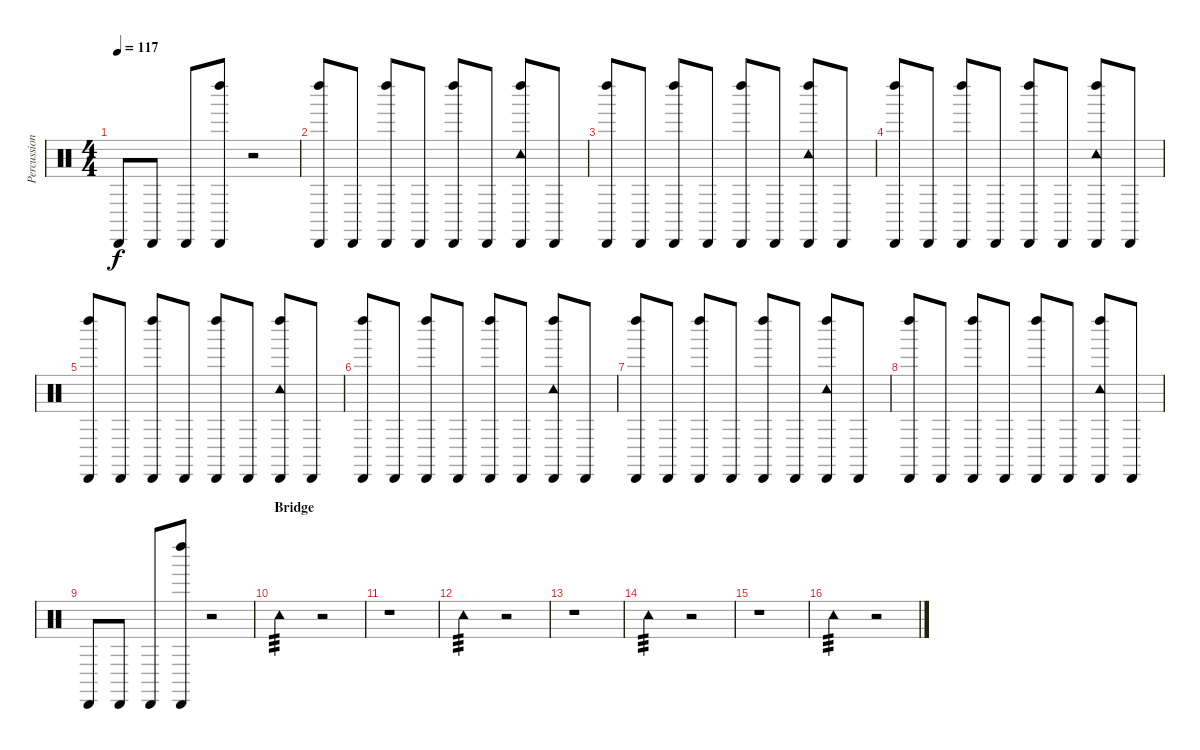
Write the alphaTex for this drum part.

\track ("Percussion" "Percussion") {instrument percussion}
\staff {score}
\articulation defaults
\ts (4 4)
\tempo 117
\clef neutral
\ks c "Cabasa (hit)".8{dy f} "Cabasa (hit)".8 "Cabasa (hit)".8
("Cabasa (hit)" "Left Maraca (hit)").8 r.2 |
("Cabasa (hit)" "Left Maraca (hit)").8 "Cabasa (hit)".8 ("Cabasa (hit)" "Left Maraca (hit)").8 "Cabasa (hit)".8 ("Cabasa (hit)" "Left Maraca (hit)").8 "Cabasa (hit)".8 ("Cabasa (hit)" "Left Maraca (hit)" "Tambourine (hit)").8 "Cabasa (hit)".8 |
("Cabasa (hit)" "Left Maraca (hit)").8 "Cabasa (hit)".8 ("Cabasa (hit)" "Left Maraca (hit)").8 "Cabasa (hit)".8 ("Cabasa (hit)" "Left Maraca (hit)").8 "Cabasa (hit)".8 ("Cabasa (hit)" "Left Maraca (hit)" "Tambourine (hit)").8 "Cabasa (hit)".8 |
("Cabasa (hit)" "Left Maraca (hit)").8 "Cabasa (hit)".8 ("Cabasa (hit)" "Left Maraca (hit)").8 "Cabasa (hit)".8 ("Cabasa (hit)" "Left Maraca (hit)").8 "Cabasa (hit)".8 ("Cabasa (hit)" "Left Maraca (hit)" "Tambourine (hit)").8 "Cabasa (hit)".8 |
("Cabasa (hit)" "Left Maraca (hit)").8 "Cabasa (hit)".8 ("Cabasa (hit)" "Left Maraca (hit)").8 "Cabasa (hit)".8 ("Cabasa (hit)" "Left Maraca (hit)").8 "Cabasa (hit)".8 ("Cabasa (hit)" "Left Maraca (hit)" "Tambourine (hit)").8 "Cabasa (hit)".8 |
("Cabasa (hit)" "Left Maraca (hit)").8 "Cabasa (hit)".8 ("Cabasa (hit)" "Left Maraca (hit)").8 "Cabasa (hit)".8 ("Cabasa (hit)" "Left Maraca (hit)").8 "Cabasa (hit)".8 ("Cabasa (hit)" "Left Maraca (hit)" "Tambourine (hit)").8 "Cabasa (hit)".8 |
("Cabasa (hit)" "Left Maraca (hit)").8 "Cabasa (hit)".8 ("Cabasa (hit)" "Left Maraca (hit)").8 "Cabasa (hit)".8 ("Cabasa (hit)" "Left Maraca (hit)").8 "Cabasa (hit)".8 ("Cabasa (hit)" "Left Maraca (hit)" "Tambourine (hit)").8 "Cabasa (hit)".8 |
("Cabasa (hit)" "Left Maraca (hit)").8 "Cabasa (hit)".8 ("Cabasa (hit)" "Left Maraca (hit)").8 "Cabasa (hit)".8 ("Cabasa (hit)" "Left Maraca (hit)").8 "Cabasa (hit)".8 ("Cabasa (hit)" "Left Maraca (hit)" "Tambourine (hit)").8 "Cabasa (hit)".8 |
"Cabasa (hit)".8 "Cabasa (hit)".8 "Cabasa (hit)".8 ("Cabasa (hit)" "Left Maraca (hit)").8 r.2 |
\section ("" "Bridge")
"Tambourine (hit)".2{tp 3} r.2 |
r.1 |
"Tambourine (hit)".2{tp 3} r.2 |
r.1 |
"Tambourine (hit)".2{tp 3} r.2 |
r.1 |
"Tambourine (hit)".2{tp 3} r.2
